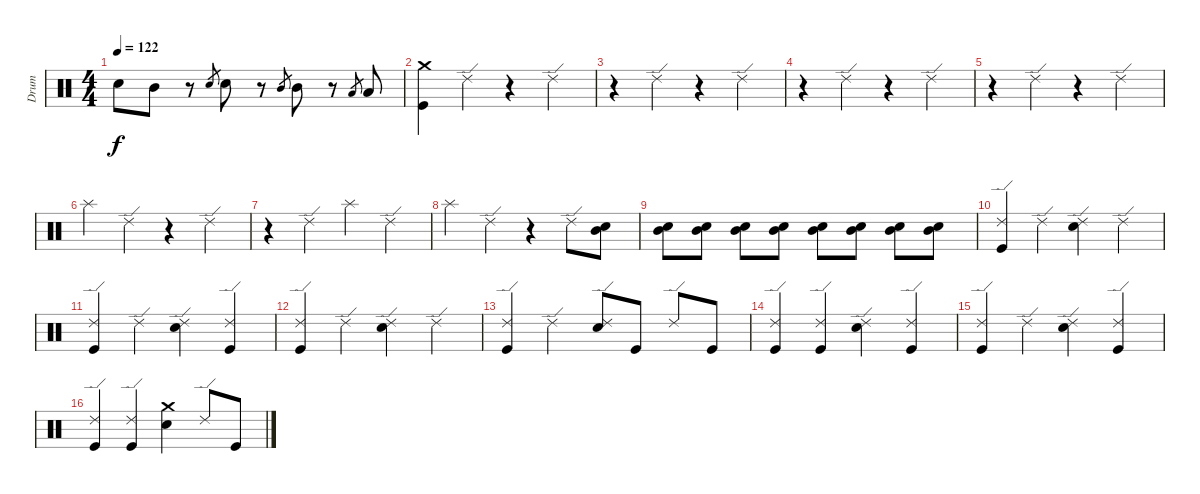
\track ("Drum" "Drum") {instrument percussion}
\staff {score}
\articulation defaults
\ts (4 4)
\tempo 122
\clef neutral
\ks c "Electric Snare (hit)".8{dy f} "Mid Tom (hit)".8
r.8 "Electric Snare (hit)".8{gr} "Electric Snare (hit)".8 r.8 "Mid Tom (hit)".8{gr} "Mid Tom (hit)".8 r.8 "Low Tom (hit)".8{gr} "Low Tom (hit)".8 |
("Kick (hit)" "Crash medium (hit)").4 "Ride (edge) 2".4 r.4 "Ride (edge) 2".4 |
r.4 "Ride (edge) 2".4 r.4 "Ride (edge) 2".4 |
r.4 "Ride (edge) 2".4 r.4 "Ride (edge) 2".4 |
r.4 "Ride (edge) 2".4 r.4 "Ride (edge) 2".4 |
"Splash (hit)".4 "Ride (edge) 2".4 r.4 "Ride (edge) 2".4 |
r.4 "Ride (edge) 2".4 "Splash (hit)".4 "Ride (edge) 2".4 |
"Splash (hit)".4 "Ride (edge) 2".4 r.4 "Ride (edge) 2".8 ("Electric Snare (hit)" "Mid Tom (hit)").8 |
("Electric Snare (hit)" "Mid Tom (hit)").8 ("Electric Snare (hit)" "Mid Tom (hit)").8 ("Electric Snare (hit)" "Mid Tom (hit)").8 ("Electric Snare (hit)" "Mid Tom (hit)").8 ("Electric Snare (hit)" "Mid Tom (hit)").8 ("Electric Snare (hit)" "Mid Tom (hit)").8 ("Electric Snare (hit)" "Mid Tom (hit)").8 ("Electric Snare (hit)" "Mid Tom (hit)").8 |
("Kick (hit)" "Ride (edge) 2").4 "Ride (edge) 2".4 ("Electric Snare (hit)" "Ride (edge) 2").4 "Ride (edge) 2".4 |
("Kick (hit)" "Ride (edge) 2").4 "Ride (edge) 2".4 ("Electric Snare (hit)" "Ride (edge) 2").4 ("Kick (hit)" "Ride (edge) 2").4 |
("Kick (hit)" "Ride (edge) 2").4 "Ride (edge) 2".4 ("Electric Snare (hit)" "Ride (edge) 2").4 "Ride (edge) 2".4 |
("Kick (hit)" "Ride (edge) 2").4 "Ride (edge) 2".4 ("Electric Snare (hit)" "Ride (edge) 2").8 "Kick (hit)".8 "Ride (edge) 2".8 "Kick (hit)".8 |
("Kick (hit)" "Ride (edge) 2").4 ("Kick (hit)" "Ride (edge) 2").4 ("Electric Snare (hit)" "Ride (edge) 2").4 ("Kick (hit)" "Ride (edge) 2").4 |
("Kick (hit)" "Ride (edge) 2").4 "Ride (edge) 2".4 ("Electric Snare (hit)" "Ride (edge) 2").4 ("Kick (hit)" "Ride (edge) 2").4 |
("Kick (hit)" "Ride (edge) 2").4 ("Kick (hit)" "Ride (edge) 2").4 ("Electric Snare (hit)" "Crash medium (hit)").4 "Ride (edge) 2".8 "Kick (hit)".8
